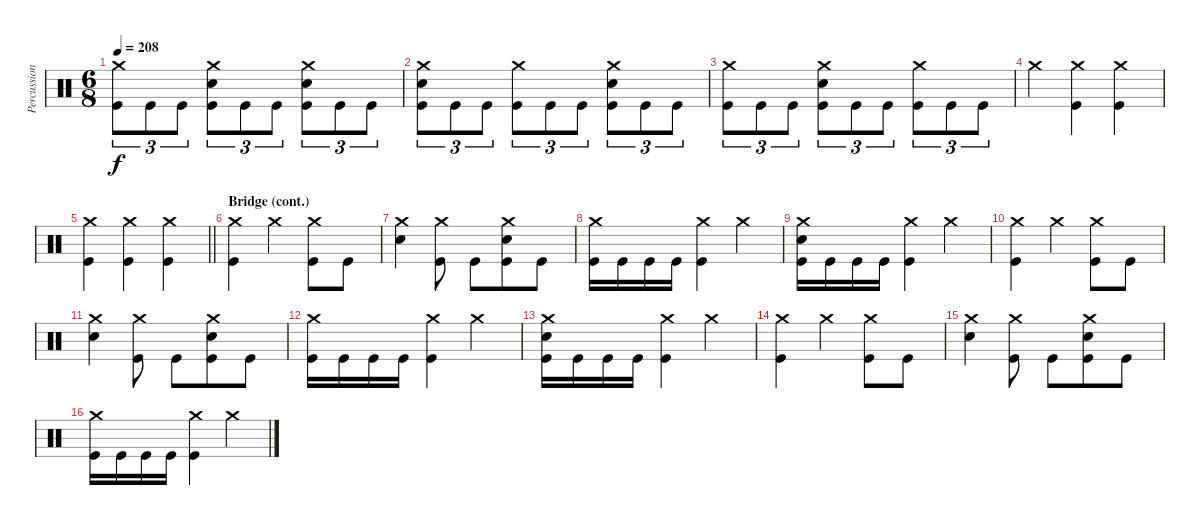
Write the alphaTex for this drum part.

\track ("Percussion" "Percussion") {instrument percussion}
\staff {score}
\articulation defaults
\ts (6 8)
\tempo 208
\clef neutral
\ks c
("Crash medium (hit)" "Kick (hit)").8{tu (3 2) dy f} "Kick (hit)".8{tu (3 2)} "Kick (hit)".8{tu (3 2)} ("Crash medium (hit)" "Electric Snare (hit)" "Kick (hit)").8{tu (3 2)} "Kick (hit)".8{tu (3 2)} "Kick (hit)".8{tu (3 2)} ("Crash medium (hit)" "Electric Snare (hit)" "Kick (hit)").8{tu (3 2)} "Kick (hit)".8{tu (3 2)} "Kick (hit)".8{tu (3 2)} |
("Crash medium (hit)" "Electric Snare (hit)" "Kick (hit)").8{tu (3 2)} "Kick (hit)".8{tu (3 2)} "Kick (hit)".8{tu (3 2)} ("Crash medium (hit)" "Kick (hit)").8{tu (3 2)} "Kick (hit)".8{tu (3 2)} "Kick (hit)".8{tu (3 2)} ("Crash medium (hit)" "Electric Snare (hit)" "Kick (hit)").8{tu (3 2)} "Kick (hit)".8{tu (3 2)} "Kick (hit)".8{tu (3 2)} |
("Crash medium (hit)" "Kick (hit)").8{tu (3 2)} "Kick (hit)".8{tu (3 2)} "Kick (hit)".8{tu (3 2)} ("Crash medium (hit)" "Electric Snare (hit)" "Kick (hit)").8{tu (3 2)} "Kick (hit)".8{tu (3 2)} "Kick (hit)".8{tu (3 2)} ("Crash medium (hit)" "Kick (hit)").8{tu (3 2)} "Kick (hit)".8{tu (3 2)} "Kick (hit)".8{tu (3 2)} |
"Crash medium (hit)".4 ("Crash medium (hit)" "Kick (hit)").4 ("Crash medium (hit)" "Kick (hit)").4 |
\barLineRight lightlight
("Crash medium (hit)" "Kick (hit)").4 ("Crash medium (hit)" "Kick (hit)").4 ("Crash medium (hit)" "Kick (hit)").4 |
\section ("" "Bridge (cont.)")
("Crash medium (hit)" "Kick (hit)").4 "Crash medium (hit)".4 ("Crash medium (hit)" "Kick (hit)").8 "Kick (hit)".8 |
("Crash medium (hit)" "Electric Snare (hit)").4 ("Crash medium (hit)" "Kick (hit)").8 "Kick (hit)".8 ("Crash medium (hit)" "Electric Snare (hit)" "Kick (hit)").8 "Kick (hit)".8 |
("Crash medium (hit)" "Kick (hit)").16 "Kick (hit)".16 "Kick (hit)".16 "Kick (hit)".16 ("Crash medium (hit)" "Kick (hit)").4 "Crash medium (hit)".4 |
("Crash medium (hit)" "Electric Snare (hit)" "Kick (hit)").16 "Kick (hit)".16 "Kick (hit)".16 "Kick (hit)".16 ("Crash medium (hit)" "Kick (hit)").4 "Crash medium (hit)".4 |
("Crash medium (hit)" "Kick (hit)").4 "Crash medium (hit)".4 ("Crash medium (hit)" "Kick (hit)").8 "Kick (hit)".8 |
("Crash medium (hit)" "Electric Snare (hit)").4 ("Crash medium (hit)" "Kick (hit)").8 "Kick (hit)".8 ("Crash medium (hit)" "Electric Snare (hit)" "Kick (hit)").8 "Kick (hit)".8 |
("Crash medium (hit)" "Kick (hit)").16 "Kick (hit)".16 "Kick (hit)".16 "Kick (hit)".16 ("Crash medium (hit)" "Kick (hit)").4 "Crash medium (hit)".4 |
("Crash medium (hit)" "Electric Snare (hit)" "Kick (hit)").16 "Kick (hit)".16 "Kick (hit)".16 "Kick (hit)".16 ("Crash medium (hit)" "Kick (hit)").4 "Crash medium (hit)".4 |
("Crash medium (hit)" "Kick (hit)").4 "Crash medium (hit)".4 ("Crash medium (hit)" "Kick (hit)").8 "Kick (hit)".8 |
("Crash medium (hit)" "Electric Snare (hit)").4 ("Crash medium (hit)" "Kick (hit)").8 "Kick (hit)".8 ("Crash medium (hit)" "Electric Snare (hit)" "Kick (hit)").8 "Kick (hit)".8 |
("Crash medium (hit)" "Kick (hit)").16 "Kick (hit)".16 "Kick (hit)".16 "Kick (hit)".16 ("Crash medium (hit)" "Kick (hit)").4 "Crash medium (hit)".4
